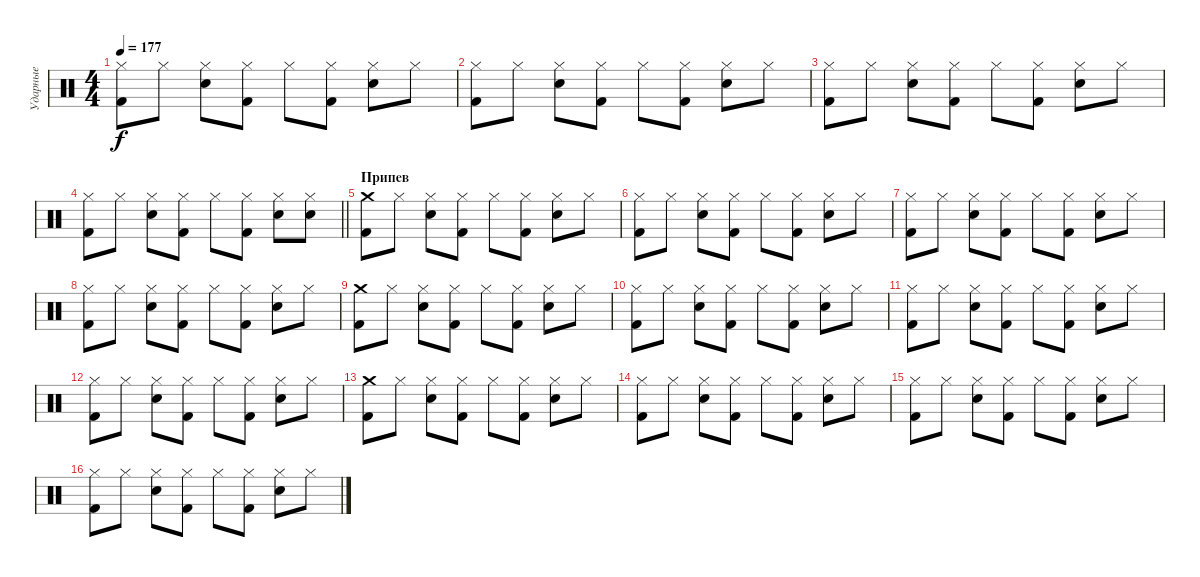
\track ("Ударные" "Ударные") {instrument percussion}
\staff {score}
\articulation defaults
\ts (4 4)
\tempo 177
\clef neutral
\ks c
("Hi-Hat (closed)" "Kick (hit) 2").8{dy f} "Hi-Hat (closed)".8 ("Hi-Hat (closed)" "Snare (hit) 2").8 ("Hi-Hat (closed)" "Kick (hit) 2").8 "Hi-Hat (closed)".8 ("Hi-Hat (closed)" "Kick (hit) 2").8 ("Hi-Hat (closed)" "Snare (hit) 2").8 "Hi-Hat (closed)".8 |
("Hi-Hat (closed)" "Kick (hit) 2").8 "Hi-Hat (closed)".8 ("Hi-Hat (closed)" "Snare (hit) 2").8 ("Hi-Hat (closed)" "Kick (hit) 2").8 "Hi-Hat (closed)".8 ("Hi-Hat (closed)" "Kick (hit) 2").8 ("Hi-Hat (closed)" "Snare (hit) 2").8 "Hi-Hat (closed)".8 |
("Hi-Hat (closed)" "Kick (hit) 2").8 "Hi-Hat (closed)".8 ("Hi-Hat (closed)" "Snare (hit) 2").8 ("Hi-Hat (closed)" "Kick (hit) 2").8 "Hi-Hat (closed)".8 ("Hi-Hat (closed)" "Kick (hit) 2").8 ("Hi-Hat (closed)" "Snare (hit) 2").8 "Hi-Hat (closed)".8 |
\barLineRight lightlight
("Hi-Hat (closed)" "Kick (hit) 2").8 "Hi-Hat (closed)".8 ("Hi-Hat (closed)" "Snare (hit) 2").8 ("Hi-Hat (closed)" "Kick (hit) 2").8 "Hi-Hat (closed)".8 ("Hi-Hat (closed)" "Kick (hit) 2").8 ("Hi-Hat (closed)" "Snare (hit) 2").8 ("Hi-Hat (closed)" "Snare (hit) 2").8 |
\section ("" "Припев")
("Crash medium (hit)" "Kick (hit) 2").8 "Hi-Hat (closed)".8 ("Hi-Hat (closed)" "Snare (hit) 2").8 ("Hi-Hat (closed)" "Kick (hit) 2").8 "Hi-Hat (closed)".8 ("Hi-Hat (closed)" "Kick (hit) 2").8 ("Hi-Hat (closed)" "Snare (hit) 2").8 "Hi-Hat (closed)".8 |
("Hi-Hat (closed)" "Kick (hit) 2").8 "Hi-Hat (closed)".8 ("Hi-Hat (closed)" "Snare (hit) 2").8 ("Hi-Hat (closed)" "Kick (hit) 2").8 "Hi-Hat (closed)".8 ("Hi-Hat (closed)" "Kick (hit) 2").8 ("Hi-Hat (closed)" "Snare (hit) 2").8 "Hi-Hat (closed)".8 |
("Hi-Hat (closed)" "Kick (hit) 2").8 "Hi-Hat (closed)".8 ("Hi-Hat (closed)" "Snare (hit) 2").8 ("Hi-Hat (closed)" "Kick (hit) 2").8 "Hi-Hat (closed)".8 ("Hi-Hat (closed)" "Kick (hit) 2").8 ("Hi-Hat (closed)" "Snare (hit) 2").8 "Hi-Hat (closed)".8 |
("Hi-Hat (closed)" "Kick (hit) 2").8 "Hi-Hat (closed)".8 ("Hi-Hat (closed)" "Snare (hit) 2").8 ("Hi-Hat (closed)" "Kick (hit) 2").8 "Hi-Hat (closed)".8 ("Hi-Hat (closed)" "Kick (hit) 2").8 ("Hi-Hat (closed)" "Snare (hit) 2").8 "Hi-Hat (closed)".8 |
("Crash medium (hit)" "Kick (hit) 2").8 "Hi-Hat (closed)".8 ("Hi-Hat (closed)" "Snare (hit) 2").8 ("Hi-Hat (closed)" "Kick (hit) 2").8 "Hi-Hat (closed)".8 ("Hi-Hat (closed)" "Kick (hit) 2").8 ("Hi-Hat (closed)" "Snare (hit) 2").8 "Hi-Hat (closed)".8 |
("Hi-Hat (closed)" "Kick (hit) 2").8 "Hi-Hat (closed)".8 ("Hi-Hat (closed)" "Snare (hit) 2").8 ("Hi-Hat (closed)" "Kick (hit) 2").8 "Hi-Hat (closed)".8 ("Hi-Hat (closed)" "Kick (hit) 2").8 ("Hi-Hat (closed)" "Snare (hit) 2").8 "Hi-Hat (closed)".8 |
("Hi-Hat (closed)" "Kick (hit) 2").8 "Hi-Hat (closed)".8 ("Hi-Hat (closed)" "Snare (hit) 2").8 ("Hi-Hat (closed)" "Kick (hit) 2").8 "Hi-Hat (closed)".8 ("Hi-Hat (closed)" "Kick (hit) 2").8 ("Hi-Hat (closed)" "Snare (hit) 2").8 "Hi-Hat (closed)".8 |
("Hi-Hat (closed)" "Kick (hit) 2").8 "Hi-Hat (closed)".8 ("Hi-Hat (closed)" "Snare (hit) 2").8 ("Hi-Hat (closed)" "Kick (hit) 2").8 "Hi-Hat (closed)".8 ("Hi-Hat (closed)" "Kick (hit) 2").8 ("Hi-Hat (closed)" "Snare (hit) 2").8 "Hi-Hat (closed)".8 |
("Crash medium (hit)" "Kick (hit) 2").8 "Hi-Hat (closed)".8 ("Hi-Hat (closed)" "Snare (hit) 2").8 ("Hi-Hat (closed)" "Kick (hit) 2").8 "Hi-Hat (closed)".8 ("Hi-Hat (closed)" "Kick (hit) 2").8 ("Hi-Hat (closed)" "Snare (hit) 2").8 "Hi-Hat (closed)".8 |
("Hi-Hat (closed)" "Kick (hit) 2").8 "Hi-Hat (closed)".8 ("Hi-Hat (closed)" "Snare (hit) 2").8 ("Hi-Hat (closed)" "Kick (hit) 2").8 "Hi-Hat (closed)".8 ("Hi-Hat (closed)" "Kick (hit) 2").8 ("Hi-Hat (closed)" "Snare (hit) 2").8 "Hi-Hat (closed)".8 |
("Hi-Hat (closed)" "Kick (hit) 2").8 "Hi-Hat (closed)".8 ("Hi-Hat (closed)" "Snare (hit) 2").8 ("Hi-Hat (closed)" "Kick (hit) 2").8 "Hi-Hat (closed)".8 ("Hi-Hat (closed)" "Kick (hit) 2").8 ("Hi-Hat (closed)" "Snare (hit) 2").8 "Hi-Hat (closed)".8 |
("Hi-Hat (closed)" "Kick (hit) 2").8 "Hi-Hat (closed)".8 ("Hi-Hat (closed)" "Snare (hit) 2").8 ("Hi-Hat (closed)" "Kick (hit) 2").8 "Hi-Hat (closed)".8 ("Hi-Hat (closed)" "Kick (hit) 2").8 ("Hi-Hat (closed)" "Snare (hit) 2").8 "Hi-Hat (closed)".8
